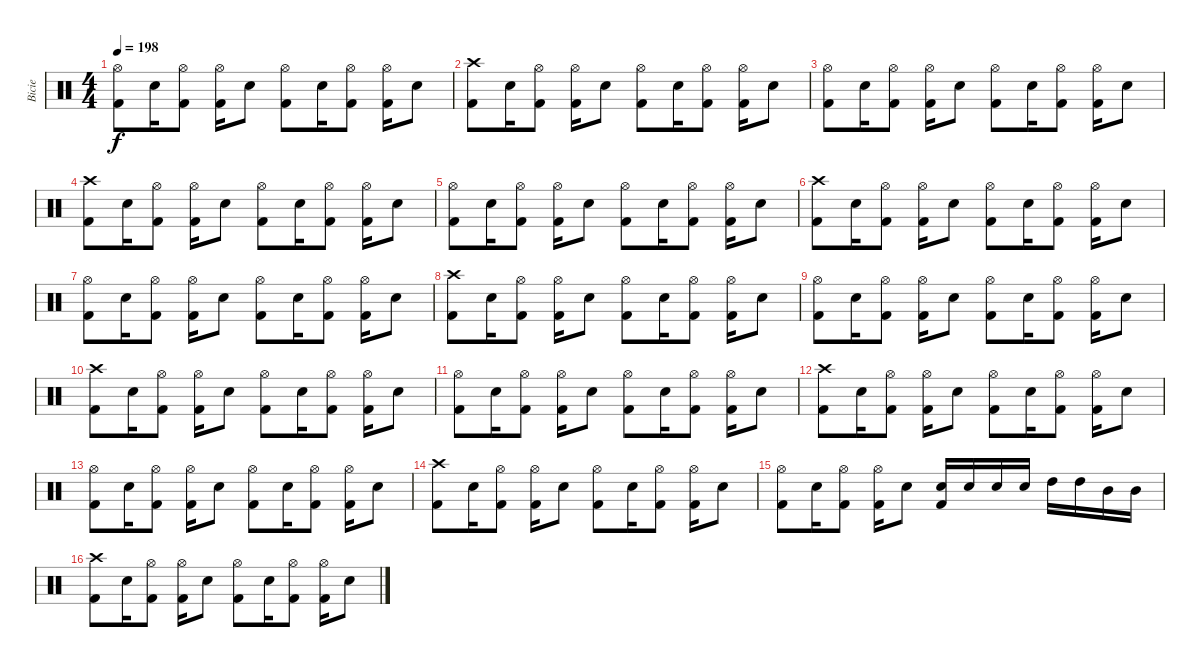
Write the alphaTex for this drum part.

\track ("Bicie" "Bicie") {instrument percussion}
\staff {score}
\articulation defaults
\ts (4 4)
\tempo 198
\clef neutral
\ks c
("Hi-Hat (open)" "Kick (hit) 2").8{dy f} "Electric Snare (hit)".16 ("Hi-Hat (open)" "Kick (hit) 2").8 ("Hi-Hat (open)" "Kick (hit) 2").16 "Electric Snare (hit)".8 ("Hi-Hat (open)" "Kick (hit) 2").8 "Electric Snare (hit)".16 ("Hi-Hat (open)" "Kick (hit) 2").8 ("Hi-Hat (open)" "Kick (hit) 2").16 "Electric Snare (hit)".8 |
("Crash high (hit)" "Kick (hit) 2").8 "Electric Snare (hit)".16 ("Hi-Hat (open)" "Kick (hit) 2").8 ("Hi-Hat (open)" "Kick (hit) 2").16 "Electric Snare (hit)".8 ("Hi-Hat (open)" "Kick (hit) 2").8 "Electric Snare (hit)".16 ("Hi-Hat (open)" "Kick (hit) 2").8 ("Hi-Hat (open)" "Kick (hit) 2").16 "Electric Snare (hit)".8 |
("Hi-Hat (open)" "Kick (hit) 2").8 "Electric Snare (hit)".16 ("Hi-Hat (open)" "Kick (hit) 2").8 ("Hi-Hat (open)" "Kick (hit) 2").16 "Electric Snare (hit)".8 ("Hi-Hat (open)" "Kick (hit) 2").8 "Electric Snare (hit)".16 ("Hi-Hat (open)" "Kick (hit) 2").8 ("Hi-Hat (open)" "Kick (hit) 2").16 "Electric Snare (hit)".8 |
("Crash high (hit)" "Kick (hit) 2").8 "Electric Snare (hit)".16 ("Hi-Hat (open)" "Kick (hit) 2").8 ("Hi-Hat (open)" "Kick (hit) 2").16 "Electric Snare (hit)".8 ("Hi-Hat (open)" "Kick (hit) 2").8 "Electric Snare (hit)".16 ("Hi-Hat (open)" "Kick (hit) 2").8 ("Hi-Hat (open)" "Kick (hit) 2").16 "Electric Snare (hit)".8 |
("Hi-Hat (open)" "Kick (hit) 2").8 "Electric Snare (hit)".16 ("Hi-Hat (open)" "Kick (hit) 2").8 ("Hi-Hat (open)" "Kick (hit) 2").16 "Electric Snare (hit)".8 ("Hi-Hat (open)" "Kick (hit) 2").8 "Electric Snare (hit)".16 ("Hi-Hat (open)" "Kick (hit) 2").8 ("Hi-Hat (open)" "Kick (hit) 2").16 "Electric Snare (hit)".8 |
("Crash high (hit)" "Kick (hit) 2").8 "Electric Snare (hit)".16 ("Hi-Hat (open)" "Kick (hit) 2").8 ("Hi-Hat (open)" "Kick (hit) 2").16 "Electric Snare (hit)".8 ("Hi-Hat (open)" "Kick (hit) 2").8 "Electric Snare (hit)".16 ("Hi-Hat (open)" "Kick (hit) 2").8 ("Hi-Hat (open)" "Kick (hit) 2").16 "Electric Snare (hit)".8 |
("Hi-Hat (open)" "Kick (hit) 2").8 "Electric Snare (hit)".16 ("Hi-Hat (open)" "Kick (hit) 2").8 ("Hi-Hat (open)" "Kick (hit) 2").16 "Electric Snare (hit)".8 ("Hi-Hat (open)" "Kick (hit) 2").8 "Electric Snare (hit)".16 ("Hi-Hat (open)" "Kick (hit) 2").8 ("Hi-Hat (open)" "Kick (hit) 2").16 "Electric Snare (hit)".8 |
("Crash high (hit)" "Kick (hit) 2").8 "Electric Snare (hit)".16 ("Hi-Hat (open)" "Kick (hit) 2").8 ("Hi-Hat (open)" "Kick (hit) 2").16 "Electric Snare (hit)".8 ("Hi-Hat (open)" "Kick (hit) 2").8 "Electric Snare (hit)".16 ("Hi-Hat (open)" "Kick (hit) 2").8 ("Hi-Hat (open)" "Kick (hit) 2").16 "Electric Snare (hit)".8 |
("Hi-Hat (open)" "Kick (hit) 2").8 "Electric Snare (hit)".16 ("Hi-Hat (open)" "Kick (hit) 2").8 ("Hi-Hat (open)" "Kick (hit) 2").16 "Electric Snare (hit)".8 ("Hi-Hat (open)" "Kick (hit) 2").8 "Electric Snare (hit)".16 ("Hi-Hat (open)" "Kick (hit) 2").8 ("Hi-Hat (open)" "Kick (hit) 2").16 "Electric Snare (hit)".8 |
("Crash high (hit)" "Kick (hit) 2").8 "Electric Snare (hit)".16 ("Hi-Hat (open)" "Kick (hit) 2").8 ("Hi-Hat (open)" "Kick (hit) 2").16 "Electric Snare (hit)".8 ("Hi-Hat (open)" "Kick (hit) 2").8 "Electric Snare (hit)".16 ("Hi-Hat (open)" "Kick (hit) 2").8 ("Hi-Hat (open)" "Kick (hit) 2").16 "Electric Snare (hit)".8 |
("Hi-Hat (open)" "Kick (hit) 2").8 "Electric Snare (hit)".16 ("Hi-Hat (open)" "Kick (hit) 2").8 ("Hi-Hat (open)" "Kick (hit) 2").16 "Electric Snare (hit)".8 ("Hi-Hat (open)" "Kick (hit) 2").8 "Electric Snare (hit)".16 ("Hi-Hat (open)" "Kick (hit) 2").8 ("Hi-Hat (open)" "Kick (hit) 2").16 "Electric Snare (hit)".8 |
("Crash high (hit)" "Kick (hit) 2").8 "Electric Snare (hit)".16 ("Hi-Hat (open)" "Kick (hit) 2").8 ("Hi-Hat (open)" "Kick (hit) 2").16 "Electric Snare (hit)".8 ("Hi-Hat (open)" "Kick (hit) 2").8 "Electric Snare (hit)".16 ("Hi-Hat (open)" "Kick (hit) 2").8 ("Hi-Hat (open)" "Kick (hit) 2").16 "Electric Snare (hit)".8 |
("Hi-Hat (open)" "Kick (hit) 2").8 "Electric Snare (hit)".16 ("Hi-Hat (open)" "Kick (hit) 2").8 ("Hi-Hat (open)" "Kick (hit) 2").16 "Electric Snare (hit)".8 ("Hi-Hat (open)" "Kick (hit) 2").8 "Electric Snare (hit)".16 ("Hi-Hat (open)" "Kick (hit) 2").8 ("Hi-Hat (open)" "Kick (hit) 2").16 "Electric Snare (hit)".8 |
("Crash high (hit)" "Kick (hit) 2").8 "Electric Snare (hit)".16 ("Hi-Hat (open)" "Kick (hit) 2").8 ("Hi-Hat (open)" "Kick (hit) 2").16 "Electric Snare (hit)".8 ("Hi-Hat (open)" "Kick (hit) 2").8 "Electric Snare (hit)".16 ("Hi-Hat (open)" "Kick (hit) 2").8 ("Hi-Hat (open)" "Kick (hit) 2").16 "Electric Snare (hit)".8 |
("Hi-Hat (open)" "Kick (hit) 2").8 "Electric Snare (hit)".16 ("Hi-Hat (open)" "Kick (hit) 2").8 ("Hi-Hat (open)" "Kick (hit) 2").16 "Electric Snare (hit)".8 ("Electric Snare (hit)" "Kick (hit) 2").16 "Electric Snare (hit)".16 "Electric Snare (hit)".16 "Electric Snare (hit)".16 "High Tom (hit)".16 "High Tom (hit)".16 "Mid Tom (hit)".16 "Mid Tom (hit)".16 |
("Crash high (hit)" "Kick (hit) 2").8 "Electric Snare (hit)".16 ("Hi-Hat (open)" "Kick (hit) 2").8 ("Hi-Hat (open)" "Kick (hit) 2").16 "Electric Snare (hit)".8 ("Hi-Hat (open)" "Kick (hit) 2").8 "Electric Snare (hit)".16 ("Hi-Hat (open)" "Kick (hit) 2").8 ("Hi-Hat (open)" "Kick (hit) 2").16 "Electric Snare (hit)".8
